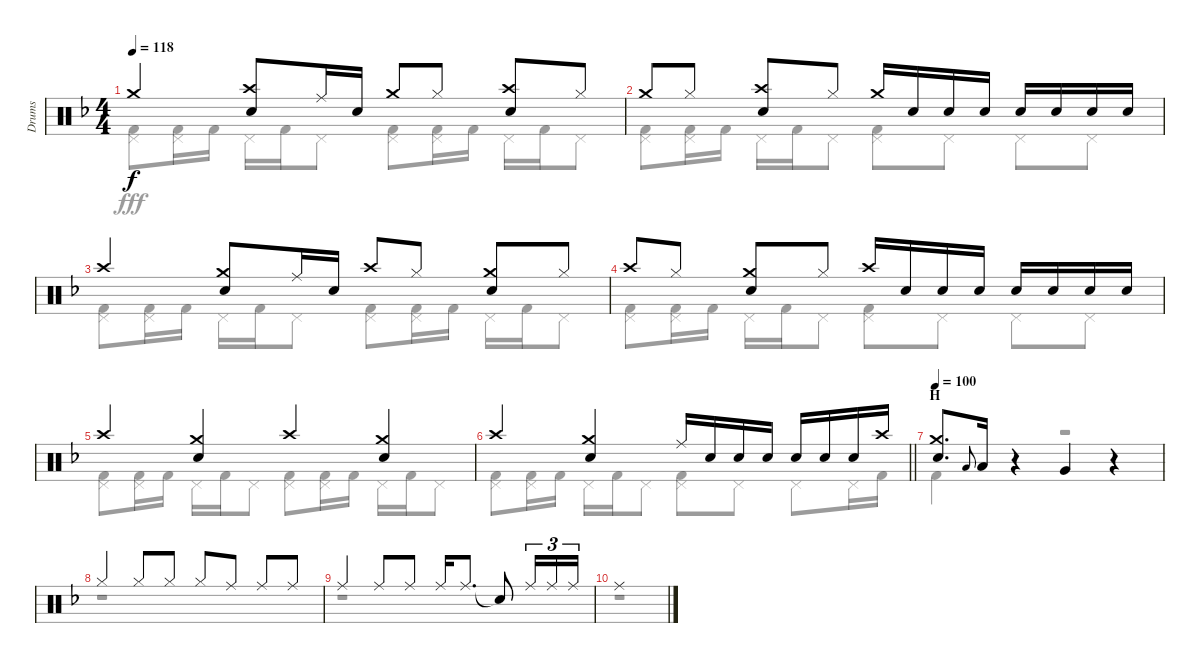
\track ("Drums" "Drums") {instrument percussion}
\staff {score}
\articulation defaults
\voice
\ts (4 4)
\tempo 118
\clef neutral
\ks f "Crash medium (hit)".4{dy f}
("Crash high (hit)" "Snare (hit) 2").8 "Ride (middle)".16 "Snare (hit) 2".16 "Crash medium (hit)".8 "Hi-Hat (closed)".8 ("Crash high (hit)" "Snare (hit) 2").8 "Hi-Hat (closed)".8 |
"Crash medium (hit)".8 "Hi-Hat (closed)".8 ("Crash high (hit)" "Snare (hit) 2").8 "Hi-Hat (closed)".8 "Crash medium (hit)".16 "Snare (hit) 2".16 "Snare (hit) 2".16 "Snare (hit) 2".16 "Snare (hit) 2".16 "Snare (hit) 2".16 "Snare (hit) 2".16 "Snare (hit) 2".16 |
"Crash high (hit)".4 ("Crash medium (hit)" "Snare (hit) 2").8 "Ride (middle)".16 "Snare (hit) 2".16 "Crash high (hit)".8 "Hi-Hat (closed)".8 ("Crash medium (hit)" "Snare (hit) 2").8 "Hi-Hat (closed)".8 |
"Crash high (hit)".8 "Hi-Hat (closed)".8 ("Crash medium (hit)" "Snare (hit) 2").8 "Hi-Hat (closed)".8 "Crash high (hit)".16 "Snare (hit) 2".16 "Snare (hit) 2".16 "Snare (hit) 2".16 "Snare (hit) 2".16 "Snare (hit) 2".16 "Snare (hit) 2".16 "Snare (hit) 2".16 |
"Crash high (hit)".4 ("Crash medium (hit)" "Snare (hit) 2").4 "Crash high (hit)".4 ("Crash medium (hit)" "Snare (hit) 2").4 |
\barLineRight lightlight "Crash high (hit)".4
("Crash medium (hit)" "Snare (hit) 2").4 "Ride (middle)".16 "Snare (hit) 2".16 "Snare (hit) 2".16 "Snare (hit) 2".16 "Snare (hit) 2".16 "Snare (hit) 2".16 "Snare (hit) 2".16 "Crash high (hit)".16 |
\section ("" "H")
\tempo 100
("Crash medium (hit)" "Snare (hit) 2").8{d} "Low Tom (hit)".8{gr onbeat} "Low Tom (hit)".16 r.4 "Very Low Tom (hit)".4 r.4 |
"Hi-Hat (closed)".4 "Hi-Hat (closed)".8 "Hi-Hat (closed)".8 "Hi-Hat (closed)".8 "Ride (middle)".8 "Ride (middle)".8 "Ride (middle)".8 |
"Ride (middle)".4 "Ride (middle)".8 "Ride (middle)".8 "Ride (middle)".16 "Ride (middle)".8{d} "Snare (hit)"{t}.8 "Ride (middle)".16{tu (3 2)} "Ride (middle)".16{tu (3 2)} "Ride (middle)".16{tu (3 2)} |
"Ride (middle)".1
\voice
\clef neutral
\ottava regular
\simile none
\ks f
("Pedal Hi-Hat (hit)" "Kick (hit) 2").8{dy fff} ("Pedal Hi-Hat (hit)" "Kick (hit) 2").16 "Kick (hit) 2".16 "Pedal Hi-Hat (hit)".16 "Kick (hit) 2".16 "Pedal Hi-Hat (hit)".8 ("Pedal Hi-Hat (hit)" "Kick (hit) 2").8 ("Pedal Hi-Hat (hit)" "Kick (hit) 2").16 "Kick (hit) 2".16 "Pedal Hi-Hat (hit)".16 "Kick (hit) 2".16 "Pedal Hi-Hat (hit)".8 |
("Pedal Hi-Hat (hit)" "Kick (hit) 2").8 ("Pedal Hi-Hat (hit)" "Kick (hit) 2").16 "Kick (hit) 2".16 "Pedal Hi-Hat (hit)".16 "Kick (hit) 2".16 "Pedal Hi-Hat (hit)".8 ("Pedal Hi-Hat (hit)" "Kick (hit) 2").8 "Pedal Hi-Hat (hit)".8 "Pedal Hi-Hat (hit)".8 "Pedal Hi-Hat (hit)".8 |
("Pedal Hi-Hat (hit)" "Kick (hit) 2").8 ("Pedal Hi-Hat (hit)" "Kick (hit) 2").16 "Kick (hit) 2".16 "Pedal Hi-Hat (hit)".16 "Kick (hit) 2".16 "Pedal Hi-Hat (hit)".8 ("Pedal Hi-Hat (hit)" "Kick (hit) 2").8 ("Pedal Hi-Hat (hit)" "Kick (hit) 2").16 "Kick (hit) 2".16 "Pedal Hi-Hat (hit)".16 "Kick (hit) 2".16 "Pedal Hi-Hat (hit)".8 |
("Pedal Hi-Hat (hit)" "Kick (hit) 2").8 ("Pedal Hi-Hat (hit)" "Kick (hit) 2").16 "Kick (hit) 2".16 "Pedal Hi-Hat (hit)".16 "Kick (hit) 2".16 "Pedal Hi-Hat (hit)".8 ("Pedal Hi-Hat (hit)" "Kick (hit) 2").8 "Pedal Hi-Hat (hit)".8 "Pedal Hi-Hat (hit)".8 "Pedal Hi-Hat (hit)".8 |
("Pedal Hi-Hat (hit)" "Kick (hit) 2").8 ("Pedal Hi-Hat (hit)" "Kick (hit) 2").16 "Kick (hit) 2".16 "Pedal Hi-Hat (hit)".16 "Kick (hit) 2".16 "Pedal Hi-Hat (hit)".8 ("Pedal Hi-Hat (hit)" "Kick (hit) 2").8 ("Pedal Hi-Hat (hit)" "Kick (hit) 2").16 "Kick (hit) 2".16 "Pedal Hi-Hat (hit)".16 "Kick (hit) 2".16 "Pedal Hi-Hat (hit)".8 |
\barLineRight lightlight
("Pedal Hi-Hat (hit)" "Kick (hit) 2").8 ("Pedal Hi-Hat (hit)" "Kick (hit) 2").16 "Kick (hit) 2".16 "Pedal Hi-Hat (hit)".16 "Kick (hit) 2".16 "Pedal Hi-Hat (hit)".8 ("Pedal Hi-Hat (hit)" "Kick (hit) 2").8 "Pedal Hi-Hat (hit)".8 "Pedal Hi-Hat (hit)".8 "Pedal Hi-Hat (hit)".16 "Kick (hit) 2".16 |
"Kick (hit) 2".4 r.4 r.2 |
r.1 |
r.1 |
r.1
